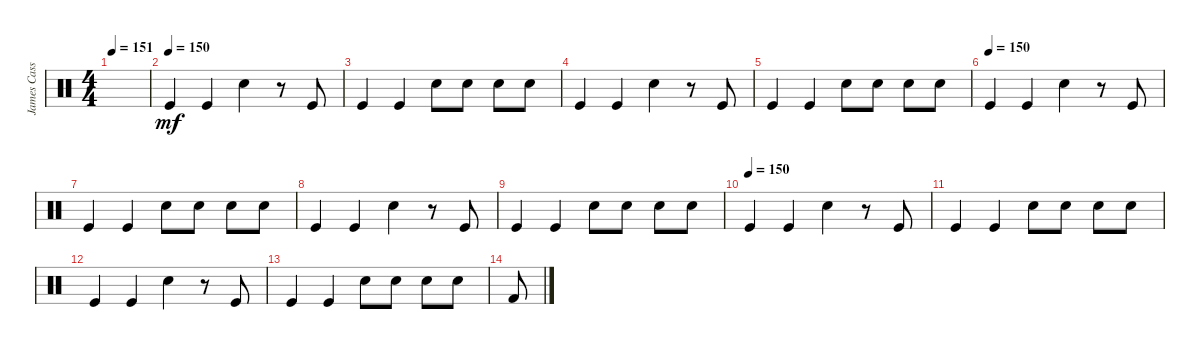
\track ("James Cassels" "James Cass") {instrument percussion}
\staff {score}
\articulation defaults
\ts (4 4)
\tempo 151
\clef neutral
\ks c
|
\tempo (150)
"Kick (hit)".4{dy mf} "Kick (hit)".4 "Snare (hit) 2".4 r.8 "Kick (hit)".8 |
"Kick (hit)".4 "Kick (hit)".4 "Snare (hit) 2".8 "Snare (hit) 2".8 "Snare (hit) 2".8 "Snare (hit) 2".8 |
"Kick (hit)".4 "Kick (hit)".4 "Snare (hit) 2".4 r.8 "Kick (hit)".8 |
"Kick (hit)".4 "Kick (hit)".4 "Snare (hit) 2".8 "Snare (hit) 2".8 "Snare (hit) 2".8 "Snare (hit) 2".8 |
\tempo (150)
"Kick (hit)".4 "Kick (hit)".4 "Snare (hit) 2".4 r.8 "Kick (hit)".8 |
"Kick (hit)".4 "Kick (hit)".4 "Snare (hit) 2".8 "Snare (hit) 2".8 "Snare (hit) 2".8 "Snare (hit) 2".8 |
"Kick (hit)".4 "Kick (hit)".4 "Snare (hit) 2".4 r.8 "Kick (hit)".8 |
"Kick (hit)".4 "Kick (hit)".4 "Snare (hit) 2".8 "Snare (hit) 2".8 "Snare (hit) 2".8 "Snare (hit) 2".8 |
\tempo (150)
"Kick (hit)".4 "Kick (hit)".4 "Snare (hit) 2".4 r.8 "Kick (hit)".8 |
"Kick (hit)".4 "Kick (hit)".4 "Snare (hit) 2".8 "Snare (hit) 2".8 "Snare (hit) 2".8 "Snare (hit) 2".8 |
"Kick (hit)".4 "Kick (hit)".4 "Snare (hit) 2".4 r.8 "Kick (hit)".8 |
"Kick (hit)".4 "Kick (hit)".4 "Snare (hit) 2".8 "Snare (hit) 2".8 "Snare (hit) 2".8 "Snare (hit) 2".8 |
"Kick (hit) 2".8
